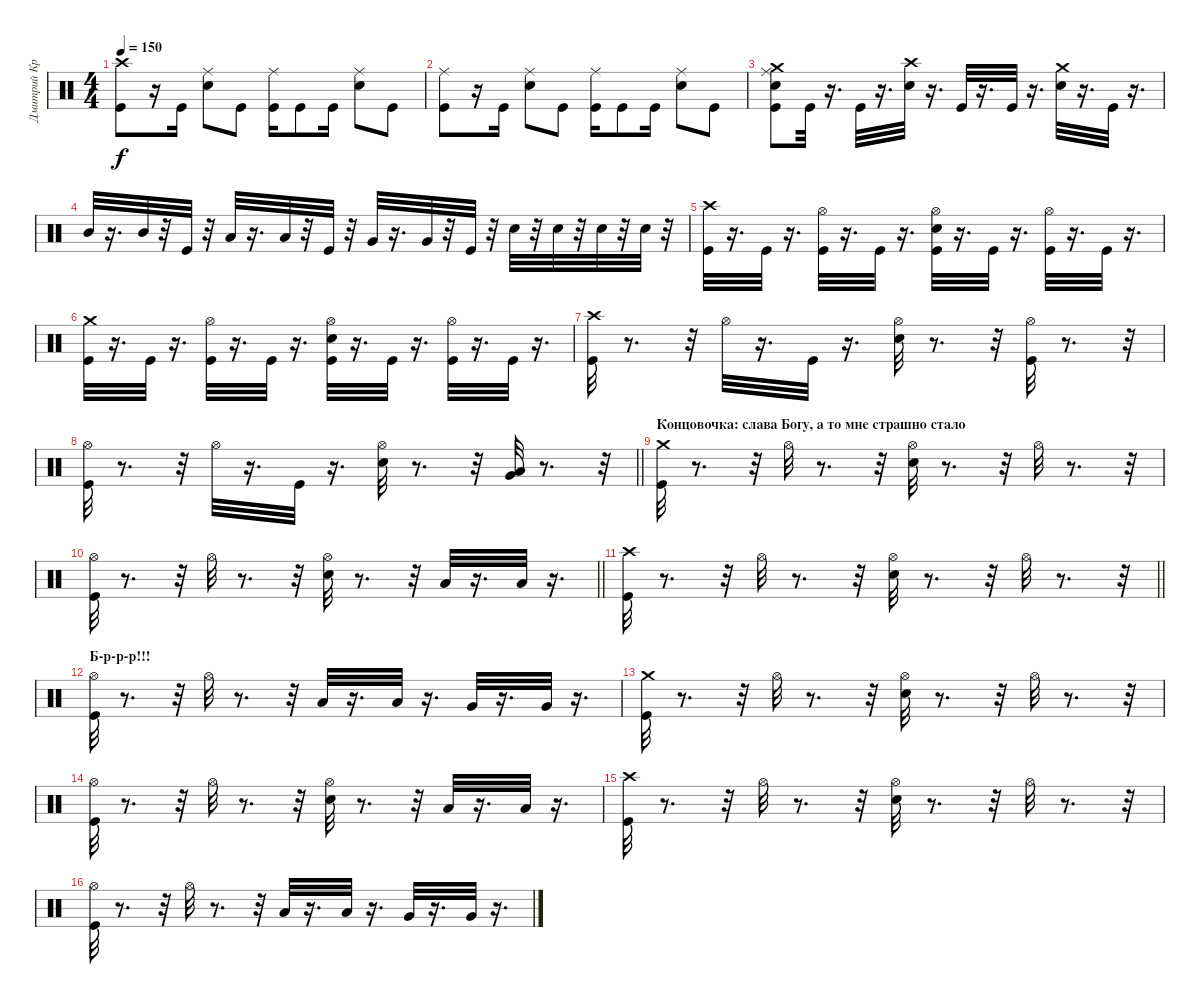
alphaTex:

\track ("Дмитрий Кривенков" "Дмитрий Кр") {instrument percussion}
\staff {score}
\articulation defaults
\ts (4 4)
\tempo 150
\clef neutral
\ks c
("Crash high (hit)" "Kick (hit)").8{dy f} r.16 "Kick (hit)".16 ("Ride (middle)" "Electric Snare (hit)").8 "Kick (hit)".8 ("Ride (middle)" "Kick (hit)").16 "Kick (hit)".8 "Kick (hit)".16 ("Ride (middle)" "Electric Snare (hit)").8 "Kick (hit)".8 |
("Kick (hit)" "Ride (middle)").8 r.16 "Kick (hit)".16 ("Ride (middle)" "Electric Snare (hit)").8 "Kick (hit)".8 ("Ride (middle)" "Kick (hit)").16 "Kick (hit)".8 "Kick (hit)".16 ("Ride (middle)" "Electric Snare (hit)").8 "Kick (hit)".8 |
("Crash medium (hit)" "Electric Snare (hit)" "Ride (middle)" "Kick (hit)").8 "Kick (hit)".32 r.16{d} "Kick (hit)".32 r.16{d} ("Crash high (hit)" "Electric Snare (hit)").32 r.16{d} "Kick (hit)".32 r.16{d} "Kick (hit)".32 r.16{d} ("Crash medium (hit)" "Electric Snare (hit)").32 r.16{d} "Kick (hit)".32 r.16{d} |
"Mid Tom (hit)".32 r.16{d} "Mid Tom (hit)".32 r.32 "Kick (hit)".32 r.32 "Low Tom (hit)".32 r.16{d} "Low Tom (hit)".32 r.32 "Kick (hit)".32 r.32 "Very Low Tom (hit)".32 r.16{d} "Very Low Tom (hit)".32 r.32 "Kick (hit)".32 r.32 "Electric Snare (hit)".32 r.32 "Electric Snare (hit)".32 r.32 "Electric Snare (hit)".32 r.32 "Electric Snare (hit)".32 r.32 |
("Crash high (hit)" "Kick (hit)").32 r.16{d} "Kick (hit)".32 r.16{d} ("Hi-Hat (open)" "Kick (hit)").32 r.16{d} "Kick (hit)".32 r.16{d} ("Kick (hit)" "Hi-Hat (open)" "Electric Snare (hit)").32 r.16{d} "Kick (hit)".32 r.16{d} ("Hi-Hat (open)" "Kick (hit)").32 r.16{d} "Kick (hit)".32 r.16{d} |
("Crash medium (hit)" "Kick (hit)").32 r.16{d} "Kick (hit)".32 r.16{d} ("Hi-Hat (open)" "Kick (hit)").32 r.16{d} "Kick (hit)".32 r.16{d} ("Hi-Hat (open)" "Kick (hit)" "Electric Snare (hit)").32 r.16{d} "Kick (hit)".32 r.16{d} ("Kick (hit)" "Hi-Hat (open)").32 r.16{d} "Kick (hit)".32 r.16{d} |
("Crash high (hit)" "Kick (hit)").32 r.8{d} r.32 "Hi-Hat (open)".32 r.16{d} "Kick (hit)".32 r.16{d} ("Hi-Hat (open)" "Electric Snare (hit)").32 r.8{d} r.32 ("Hi-Hat (open)" "Kick (hit)").32 r.8{d} r.32 |
\barLineRight lightlight
("Hi-Hat (open)" "Kick (hit)").32 r.8{d} r.32 "Hi-Hat (open)".32 r.16{d} "Kick (hit)".32 r.16{d} ("Hi-Hat (open)" "Electric Snare (hit)").32 r.8{d} r.32 ("Very Low Tom (hit)" "Low Tom (hit)").32 r.8{d} r.32 |
\section ("" "Концовочка: слава Богу, а то мне страшно стало")
("Crash medium (hit)" "Kick (hit)").32 r.8{d} r.32 "Hi-Hat (open)".32 r.8{d} r.32 ("Hi-Hat (open)" "Electric Snare (hit)").32 r.8{d} r.32 "Hi-Hat (open)".32 r.8{d} r.32 |
\barLineRight lightlight
("Hi-Hat (open)" "Kick (hit)").32 r.8{d} r.32 "Hi-Hat (open)".32 r.8{d} r.32 ("Hi-Hat (open)" "Electric Snare (hit)").32 r.8{d} r.32 "Low Tom (hit)".32 r.16{d} "Low Tom (hit)".32 r.16{d} |
\section ("" "")
\barLineRight lightlight
("Kick (hit)" "Crash high (hit)").32 r.8{d} r.32 "Hi-Hat (open)".32 r.8{d} r.32 ("Hi-Hat (open)" "Electric Snare (hit)").32 r.8{d} r.32 "Hi-Hat (open)".32 r.8{d} r.32 |
\section ("" "Б-р-р-р!!!")
("Hi-Hat (open)" "Kick (hit)").32 r.8{d} r.32 "Hi-Hat (open)".32 r.8{d} r.32 "Low Tom (hit)".32 r.16{d} "Low Tom (hit)".32 r.16{d} "Very Low Tom (hit)".32 r.16{d} "Very Low Tom (hit)".32 r.16{d} |
("Crash medium (hit)" "Kick (hit)").32 r.8{d} r.32 "Hi-Hat (open)".32 r.8{d} r.32 ("Hi-Hat (open)" "Electric Snare (hit)").32 r.8{d} r.32 "Hi-Hat (open)".32 r.8{d} r.32 |
("Hi-Hat (open)" "Kick (hit)").32 r.8{d} r.32 "Hi-Hat (open)".32 r.8{d} r.32 ("Hi-Hat (open)" "Electric Snare (hit)").32 r.8{d} r.32 "Low Tom (hit)".32 r.16{d} "Low Tom (hit)".32 r.16{d} |
("Kick (hit)" "Crash high (hit)").32 r.8{d} r.32 "Hi-Hat (open)".32 r.8{d} r.32 ("Hi-Hat (open)" "Electric Snare (hit)").32 r.8{d} r.32 "Hi-Hat (open)".32 r.8{d} r.32 |
("Hi-Hat (open)" "Kick (hit)").32 r.8{d} r.32 "Hi-Hat (open)".32 r.8{d} r.32 "Low Tom (hit)".32 r.16{d} "Low Tom (hit)".32 r.16{d} "Very Low Tom (hit)".32 r.16{d} "Very Low Tom (hit)".32 r.16{d}
